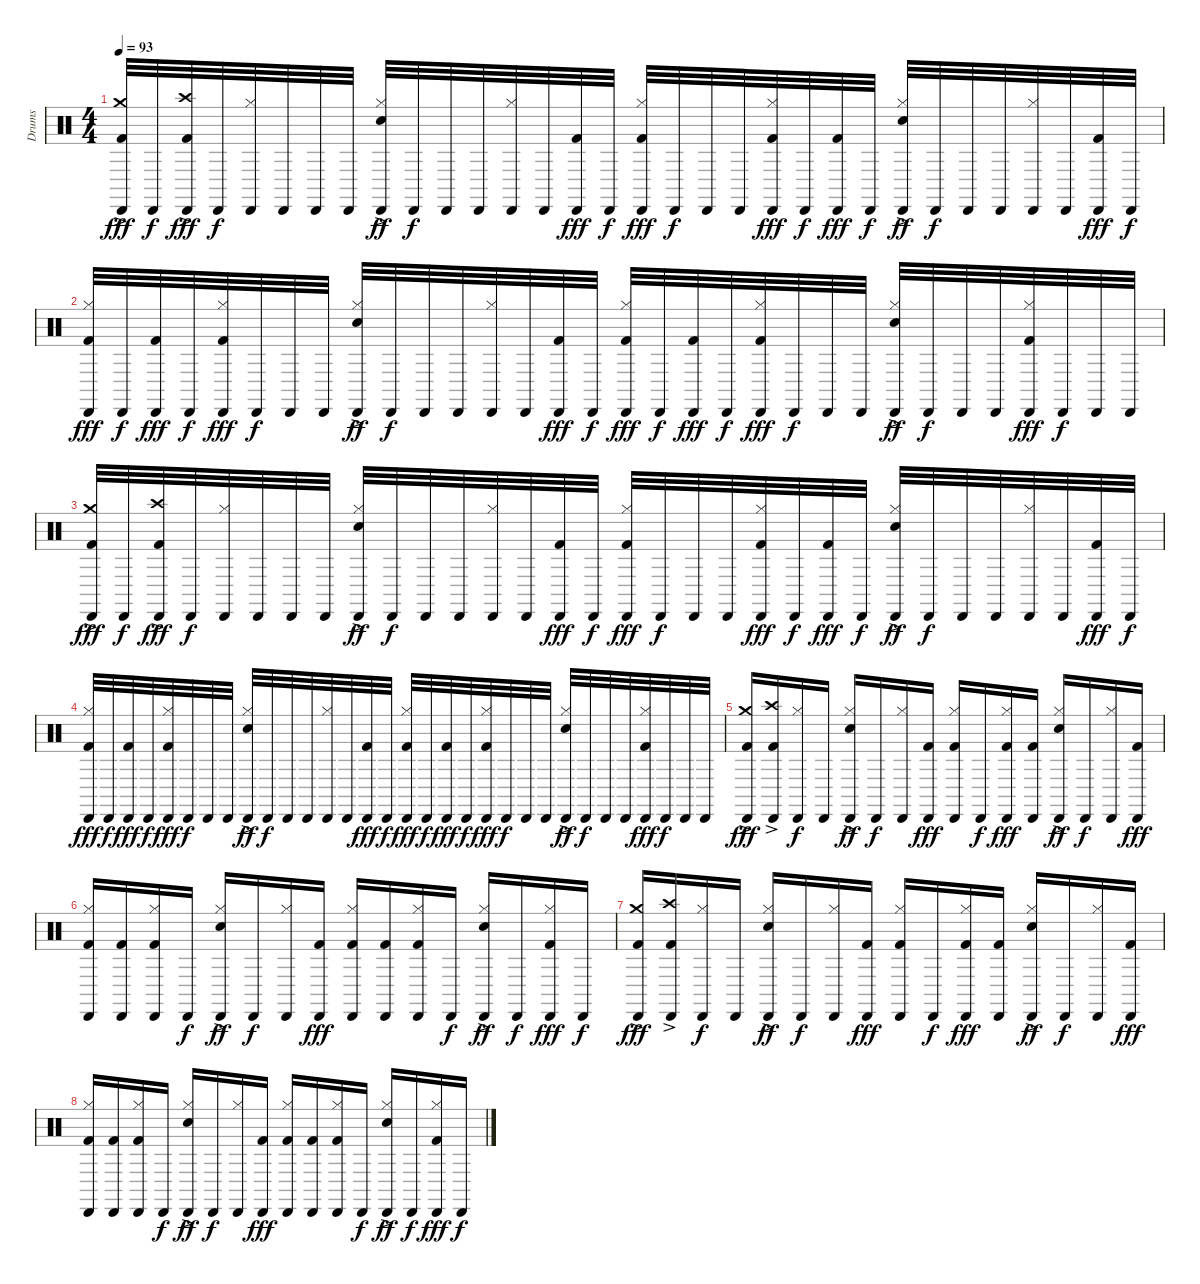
\track ("Drums" "Drums") {instrument percussion}
\staff {score}
\articulation defaults
\ts (4 4)
\tempo 93
\clef neutral
\ks c
("Crash medium (hit)"{ac} "Cabasa (hit)" "Kick (hit) 2").32{dy fff} "Cabasa (hit)".32{dy f} ("Crash high (hit)"{ac} "Cabasa (hit)" "Kick (hit) 2").32{dy fff} "Cabasa (hit)".32{dy f} ("Cabasa (hit)" "Hi-Hat (closed)").32 "Cabasa (hit)".32 "Cabasa (hit)".32 "Cabasa (hit)".32 ("Cabasa (hit)" "Hi-Hat (closed)" "Electric Snare (hit)"{ac}).32{dy ff} "Cabasa (hit)".32{dy f} "Cabasa (hit)".32 "Cabasa (hit)".32 ("Cabasa (hit)" "Hi-Hat (closed)").32 "Cabasa (hit)".32 ("Cabasa (hit)" "Kick (hit) 2").32{dy fff} "Cabasa (hit)".32{dy f} ("Cabasa (hit)" "Hi-Hat (closed)" "Kick (hit) 2").32{dy fff} "Cabasa (hit)".32{dy f} "Cabasa (hit)".32 "Cabasa (hit)".32 ("Cabasa (hit)" "Hi-Hat (closed)" "Kick (hit) 2").32{dy fff} "Cabasa (hit)".32{dy f} ("Cabasa (hit)" "Kick (hit) 2").32{dy fff} "Cabasa (hit)".32{dy f} ("Cabasa (hit)" "Hi-Hat (closed)" "Electric Snare (hit)"{ac}).32{dy ff} "Cabasa (hit)".32{dy f} "Cabasa (hit)".32 "Cabasa (hit)".32 ("Cabasa (hit)" "Hi-Hat (closed)").32 "Cabasa (hit)".32 ("Cabasa (hit)" "Kick (hit) 2").32{dy fff} "Cabasa (hit)".32{dy f} |
("Cabasa (hit)" "Hi-Hat (closed)" "Kick (hit) 2").32{dy fff} "Cabasa (hit)".32{dy f} ("Cabasa (hit)" "Kick (hit) 2").32{dy fff} "Cabasa (hit)".32{dy f} ("Cabasa (hit)" "Hi-Hat (closed)" "Kick (hit) 2").32{dy fff} "Cabasa (hit)".32{dy f} "Cabasa (hit)".32 "Cabasa (hit)".32 ("Cabasa (hit)" "Hi-Hat (closed)" "Electric Snare (hit)"{ac}).32{dy ff} "Cabasa (hit)".32{dy f} "Cabasa (hit)".32 "Cabasa (hit)".32 ("Cabasa (hit)" "Hi-Hat (closed)").32 "Cabasa (hit)".32 ("Cabasa (hit)" "Kick (hit) 2").32{dy fff} "Cabasa (hit)".32{dy f} ("Cabasa (hit)" "Hi-Hat (closed)" "Kick (hit) 2").32{dy fff} "Cabasa (hit)".32{dy f} ("Cabasa (hit)" "Kick (hit) 2").32{dy fff} "Cabasa (hit)".32{dy f} ("Cabasa (hit)" "Hi-Hat (closed)" "Kick (hit) 2").32{dy fff} "Cabasa (hit)".32{dy f} "Cabasa (hit)".32 "Cabasa (hit)".32 ("Cabasa (hit)" "Hi-Hat (closed)" "Electric Snare (hit)"{ac}).32{dy ff} "Cabasa (hit)".32{dy f} "Cabasa (hit)".32 "Cabasa (hit)".32 ("Cabasa (hit)" "Hi-Hat (closed)" "Kick (hit) 2").32{dy fff} "Cabasa (hit)".32{dy f} "Cabasa (hit)".32 "Cabasa (hit)".32 |
("Crash medium (hit)"{ac} "Cabasa (hit)" "Kick (hit) 2").32{dy fff} "Cabasa (hit)".32{dy f} ("Crash high (hit)"{ac} "Cabasa (hit)" "Kick (hit) 2").32{dy fff} "Cabasa (hit)".32{dy f} ("Cabasa (hit)" "Hi-Hat (closed)").32 "Cabasa (hit)".32 "Cabasa (hit)".32 "Cabasa (hit)".32 ("Cabasa (hit)" "Hi-Hat (closed)" "Electric Snare (hit)"{ac}).32{dy ff} "Cabasa (hit)".32{dy f} "Cabasa (hit)".32 "Cabasa (hit)".32 ("Cabasa (hit)" "Hi-Hat (closed)").32 "Cabasa (hit)".32 ("Cabasa (hit)" "Kick (hit) 2").32{dy fff} "Cabasa (hit)".32{dy f} ("Cabasa (hit)" "Hi-Hat (closed)" "Kick (hit) 2").32{dy fff} "Cabasa (hit)".32{dy f} "Cabasa (hit)".32 "Cabasa (hit)".32 ("Cabasa (hit)" "Hi-Hat (closed)" "Kick (hit) 2").32{dy fff} "Cabasa (hit)".32{dy f} ("Cabasa (hit)" "Kick (hit) 2").32{dy fff} "Cabasa (hit)".32{dy f} ("Cabasa (hit)" "Hi-Hat (closed)" "Electric Snare (hit)"{ac}).32{dy ff} "Cabasa (hit)".32{dy f} "Cabasa (hit)".32 "Cabasa (hit)".32 ("Cabasa (hit)" "Hi-Hat (closed)").32 "Cabasa (hit)".32 ("Cabasa (hit)" "Kick (hit) 2").32{dy fff} "Cabasa (hit)".32{dy f} |
("Cabasa (hit)" "Hi-Hat (closed)" "Kick (hit) 2").32{dy fff} "Cabasa (hit)".32{dy f} ("Cabasa (hit)" "Kick (hit) 2").32{dy fff} "Cabasa (hit)".32{dy f} ("Cabasa (hit)" "Hi-Hat (closed)" "Kick (hit) 2").32{dy fff} "Cabasa (hit)".32{dy f} "Cabasa (hit)".32 "Cabasa (hit)".32 ("Cabasa (hit)" "Hi-Hat (closed)" "Electric Snare (hit)"{ac}).32{dy ff} "Cabasa (hit)".32{dy f} "Cabasa (hit)".32 "Cabasa (hit)".32 ("Cabasa (hit)" "Hi-Hat (closed)").32 "Cabasa (hit)".32 ("Cabasa (hit)" "Kick (hit) 2").32{dy fff} "Cabasa (hit)".32{dy f} ("Cabasa (hit)" "Hi-Hat (closed)" "Kick (hit) 2").32{dy fff} "Cabasa (hit)".32{dy f} ("Cabasa (hit)" "Kick (hit) 2").32{dy fff} "Cabasa (hit)".32{dy f} ("Cabasa (hit)" "Hi-Hat (closed)" "Kick (hit) 2").32{dy fff} "Cabasa (hit)".32{dy f} "Cabasa (hit)".32 "Cabasa (hit)".32 ("Cabasa (hit)" "Hi-Hat (closed)" "Electric Snare (hit)"{ac}).32{dy ff} "Cabasa (hit)".32{dy f} "Cabasa (hit)".32 "Cabasa (hit)".32 ("Cabasa (hit)" "Hi-Hat (closed)" "Kick (hit) 2").32{dy fff} "Cabasa (hit)".32{dy f} "Cabasa (hit)".32 "Cabasa (hit)".32 |
("Crash medium (hit)"{ac} "Cabasa (hit)" "Kick (hit) 2").16{dy fff} ("Crash high (hit)"{ac} "Cabasa (hit)" "Kick (hit) 2").16 ("Cabasa (hit)" "Hi-Hat (closed)").16{dy f} "Cabasa (hit)".16 ("Cabasa (hit)" "Hi-Hat (closed)" "Electric Snare (hit)"{ac}).16{dy ff} "Cabasa (hit)".16{dy f} ("Cabasa (hit)" "Hi-Hat (closed)").16 ("Cabasa (hit)" "Kick (hit) 2").16{dy fff} ("Cabasa (hit)" "Hi-Hat (closed)" "Kick (hit) 2").16 "Cabasa (hit)".16{dy f} ("Cabasa (hit)" "Hi-Hat (closed)" "Kick (hit) 2").16{dy fff} ("Cabasa (hit)" "Kick (hit) 2").16 ("Cabasa (hit)" "Hi-Hat (closed)" "Electric Snare (hit)"{ac}).16{dy ff} "Cabasa (hit)".16{dy f} ("Cabasa (hit)" "Hi-Hat (closed)").16 ("Cabasa (hit)" "Kick (hit) 2").16{dy fff} |
("Cabasa (hit)" "Hi-Hat (closed)" "Kick (hit) 2").16 ("Cabasa (hit)" "Kick (hit) 2").16 ("Cabasa (hit)" "Hi-Hat (closed)" "Kick (hit) 2").16 "Cabasa (hit)".16{dy f} ("Cabasa (hit)" "Hi-Hat (closed)" "Electric Snare (hit)"{ac}).16{dy ff} "Cabasa (hit)".16{dy f} ("Cabasa (hit)" "Hi-Hat (closed)").16 ("Cabasa (hit)" "Kick (hit) 2").16{dy fff} ("Cabasa (hit)" "Hi-Hat (closed)" "Kick (hit) 2").16 ("Cabasa (hit)" "Kick (hit) 2").16 ("Cabasa (hit)" "Hi-Hat (closed)" "Kick (hit) 2").16 "Cabasa (hit)".16{dy f} ("Cabasa (hit)" "Hi-Hat (closed)" "Electric Snare (hit)"{ac}).16{dy ff} "Cabasa (hit)".16{dy f} ("Cabasa (hit)" "Hi-Hat (closed)" "Kick (hit) 2").16{dy fff} "Cabasa (hit)".16{dy f} |
("Crash medium (hit)"{ac} "Cabasa (hit)" "Kick (hit) 2").16{dy fff} ("Crash high (hit)"{ac} "Cabasa (hit)" "Kick (hit) 2").16 ("Cabasa (hit)" "Hi-Hat (closed)").16{dy f} "Cabasa (hit)".16 ("Cabasa (hit)" "Hi-Hat (closed)" "Electric Snare (hit)"{ac}).16{dy ff} "Cabasa (hit)".16{dy f} ("Cabasa (hit)" "Hi-Hat (closed)").16 ("Cabasa (hit)" "Kick (hit) 2").16{dy fff} ("Cabasa (hit)" "Hi-Hat (closed)" "Kick (hit) 2").16 "Cabasa (hit)".16{dy f} ("Cabasa (hit)" "Hi-Hat (closed)" "Kick (hit) 2").16{dy fff} ("Cabasa (hit)" "Kick (hit) 2").16 ("Cabasa (hit)" "Hi-Hat (closed)" "Electric Snare (hit)"{ac}).16{dy ff} "Cabasa (hit)".16{dy f} ("Cabasa (hit)" "Hi-Hat (closed)").16 ("Cabasa (hit)" "Kick (hit) 2").16{dy fff} |
("Cabasa (hit)" "Hi-Hat (closed)" "Kick (hit) 2").16 ("Cabasa (hit)" "Kick (hit) 2").16 ("Cabasa (hit)" "Hi-Hat (closed)" "Kick (hit) 2").16 "Cabasa (hit)".16{dy f} ("Cabasa (hit)" "Hi-Hat (closed)" "Electric Snare (hit)"{ac}).16{dy ff} "Cabasa (hit)".16{dy f} ("Cabasa (hit)" "Hi-Hat (closed)").16 ("Cabasa (hit)" "Kick (hit) 2").16{dy fff} ("Cabasa (hit)" "Hi-Hat (closed)" "Kick (hit) 2").16 ("Cabasa (hit)" "Kick (hit) 2").16 ("Cabasa (hit)" "Hi-Hat (closed)" "Kick (hit) 2").16 "Cabasa (hit)".16{dy f} ("Cabasa (hit)" "Hi-Hat (closed)" "Electric Snare (hit)"{ac}).16{dy ff} "Cabasa (hit)".16{dy f} ("Cabasa (hit)" "Hi-Hat (closed)" "Kick (hit) 2").16{dy fff} "Cabasa (hit)".16{dy f}
